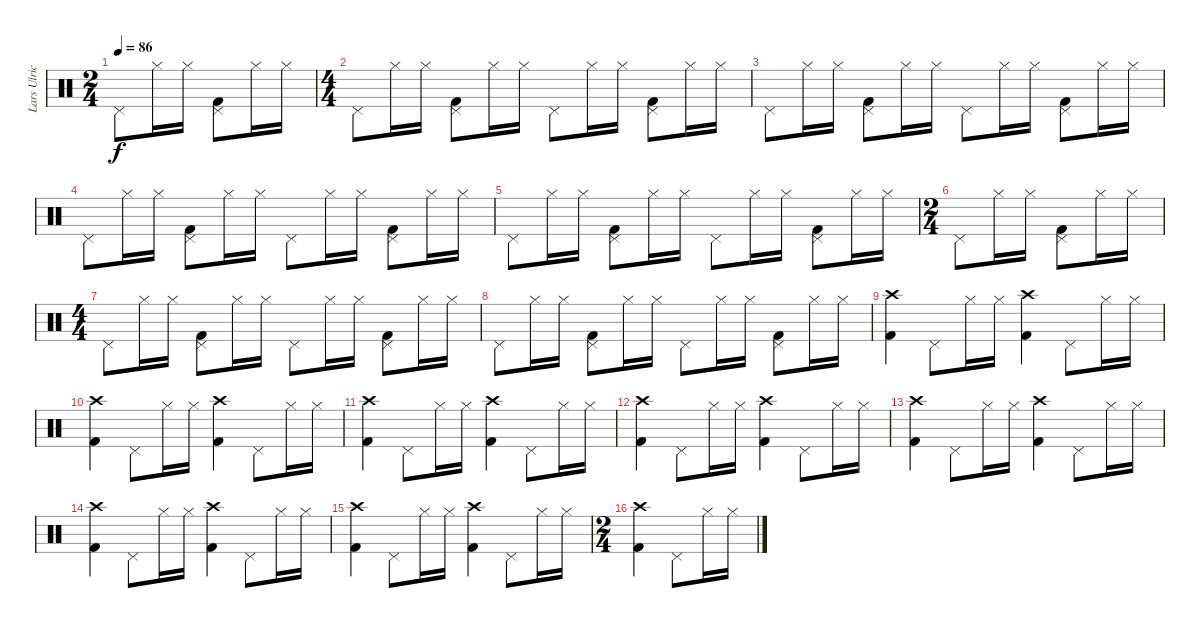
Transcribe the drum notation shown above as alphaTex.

\track ("Lars Ulrich" "Lars Ulric") {instrument percussion}
\staff {score}
\articulation defaults
\ts (2 4)
\tempo 86
\clef neutral
\ks c "Pedal Hi-Hat (hit)".8{dy f} "Hi-Hat (closed)".16 "Hi-Hat (closed)".16
("Pedal Hi-Hat (hit)" "Kick (hit) 2").8 "Hi-Hat (closed)".16 "Hi-Hat (closed)".16 |
\ts (4 4)
"Pedal Hi-Hat (hit)".8 "Hi-Hat (closed)".16 "Hi-Hat (closed)".16 ("Pedal Hi-Hat (hit)" "Kick (hit) 2").8 "Hi-Hat (closed)".16 "Hi-Hat (closed)".16 "Pedal Hi-Hat (hit)".8 "Hi-Hat (closed)".16 "Hi-Hat (closed)".16 ("Pedal Hi-Hat (hit)" "Kick (hit) 2").8 "Hi-Hat (closed)".16 "Hi-Hat (closed)".16 |
"Pedal Hi-Hat (hit)".8 "Hi-Hat (closed)".16 "Hi-Hat (closed)".16 ("Pedal Hi-Hat (hit)" "Kick (hit) 2").8 "Hi-Hat (closed)".16 "Hi-Hat (closed)".16 "Pedal Hi-Hat (hit)".8 "Hi-Hat (closed)".16 "Hi-Hat (closed)".16 ("Pedal Hi-Hat (hit)" "Kick (hit) 2").8 "Hi-Hat (closed)".16 "Hi-Hat (closed)".16 |
"Pedal Hi-Hat (hit)".8 "Hi-Hat (closed)".16 "Hi-Hat (closed)".16 ("Pedal Hi-Hat (hit)" "Kick (hit) 2").8 "Hi-Hat (closed)".16 "Hi-Hat (closed)".16 "Pedal Hi-Hat (hit)".8 "Hi-Hat (closed)".16 "Hi-Hat (closed)".16 ("Pedal Hi-Hat (hit)" "Kick (hit) 2").8 "Hi-Hat (closed)".16 "Hi-Hat (closed)".16 |
"Pedal Hi-Hat (hit)".8 "Hi-Hat (closed)".16 "Hi-Hat (closed)".16 ("Pedal Hi-Hat (hit)" "Kick (hit) 2").8 "Hi-Hat (closed)".16 "Hi-Hat (closed)".16 "Pedal Hi-Hat (hit)".8 "Hi-Hat (closed)".16 "Hi-Hat (closed)".16 ("Pedal Hi-Hat (hit)" "Kick (hit) 2").8 "Hi-Hat (closed)".16 "Hi-Hat (closed)".16 |
\ts (2 4)
"Pedal Hi-Hat (hit)".8 "Hi-Hat (closed)".16 "Hi-Hat (closed)".16 ("Pedal Hi-Hat (hit)" "Kick (hit) 2").8 "Hi-Hat (closed)".16 "Hi-Hat (closed)".16 |
\ts (4 4)
"Pedal Hi-Hat (hit)".8 "Hi-Hat (closed)".16 "Hi-Hat (closed)".16 ("Pedal Hi-Hat (hit)" "Kick (hit) 2").8 "Hi-Hat (closed)".16 "Hi-Hat (closed)".16 "Pedal Hi-Hat (hit)".8 "Hi-Hat (closed)".16 "Hi-Hat (closed)".16 ("Pedal Hi-Hat (hit)" "Kick (hit) 2").8 "Hi-Hat (closed)".16 "Hi-Hat (closed)".16 |
"Pedal Hi-Hat (hit)".8 "Hi-Hat (closed)".16 "Hi-Hat (closed)".16 ("Pedal Hi-Hat (hit)" "Kick (hit) 2").8 "Hi-Hat (closed)".16 "Hi-Hat (closed)".16 "Pedal Hi-Hat (hit)".8 "Hi-Hat (closed)".16 "Hi-Hat (closed)".16 ("Pedal Hi-Hat (hit)" "Kick (hit) 2").8 "Hi-Hat (closed)".16 "Hi-Hat (closed)".16 |
("Crash high (hit)" "Kick (hit) 2").4 "Pedal Hi-Hat (hit)".8 "Hi-Hat (closed)".16 "Hi-Hat (closed)".16 ("Crash high (hit)" "Kick (hit) 2").4 "Pedal Hi-Hat (hit)".8 "Hi-Hat (closed)".16 "Hi-Hat (closed)".16 |
("Crash high (hit)" "Kick (hit) 2").4 "Pedal Hi-Hat (hit)".8 "Hi-Hat (closed)".16 "Hi-Hat (closed)".16 ("Crash high (hit)" "Kick (hit) 2").4 "Pedal Hi-Hat (hit)".8 "Hi-Hat (closed)".16 "Hi-Hat (closed)".16 |
("Crash high (hit)" "Kick (hit) 2").4 "Pedal Hi-Hat (hit)".8 "Hi-Hat (closed)".16 "Hi-Hat (closed)".16 ("Crash high (hit)" "Kick (hit) 2").4 "Pedal Hi-Hat (hit)".8 "Hi-Hat (closed)".16 "Hi-Hat (closed)".16 |
("Crash high (hit)" "Kick (hit) 2").4 "Pedal Hi-Hat (hit)".8 "Hi-Hat (closed)".16 "Hi-Hat (closed)".16 ("Crash high (hit)" "Kick (hit) 2").4 "Pedal Hi-Hat (hit)".8 "Hi-Hat (closed)".16 "Hi-Hat (closed)".16 |
("Crash high (hit)" "Kick (hit) 2").4 "Pedal Hi-Hat (hit)".8 "Hi-Hat (closed)".16 "Hi-Hat (closed)".16 ("Crash high (hit)" "Kick (hit) 2").4 "Pedal Hi-Hat (hit)".8 "Hi-Hat (closed)".16 "Hi-Hat (closed)".16 |
("Crash high (hit)" "Kick (hit) 2").4 "Pedal Hi-Hat (hit)".8 "Hi-Hat (closed)".16 "Hi-Hat (closed)".16 ("Crash high (hit)" "Kick (hit) 2").4 "Pedal Hi-Hat (hit)".8 "Hi-Hat (closed)".16 "Hi-Hat (closed)".16 |
("Crash high (hit)" "Kick (hit) 2").4 "Pedal Hi-Hat (hit)".8 "Hi-Hat (closed)".16 "Hi-Hat (closed)".16 ("Crash high (hit)" "Kick (hit) 2").4 "Pedal Hi-Hat (hit)".8 "Hi-Hat (closed)".16 "Hi-Hat (closed)".16 |
\ts (2 4)
("Crash high (hit)" "Kick (hit) 2").4 "Pedal Hi-Hat (hit)".8 "Hi-Hat (closed)".16 "Hi-Hat (closed)".16
